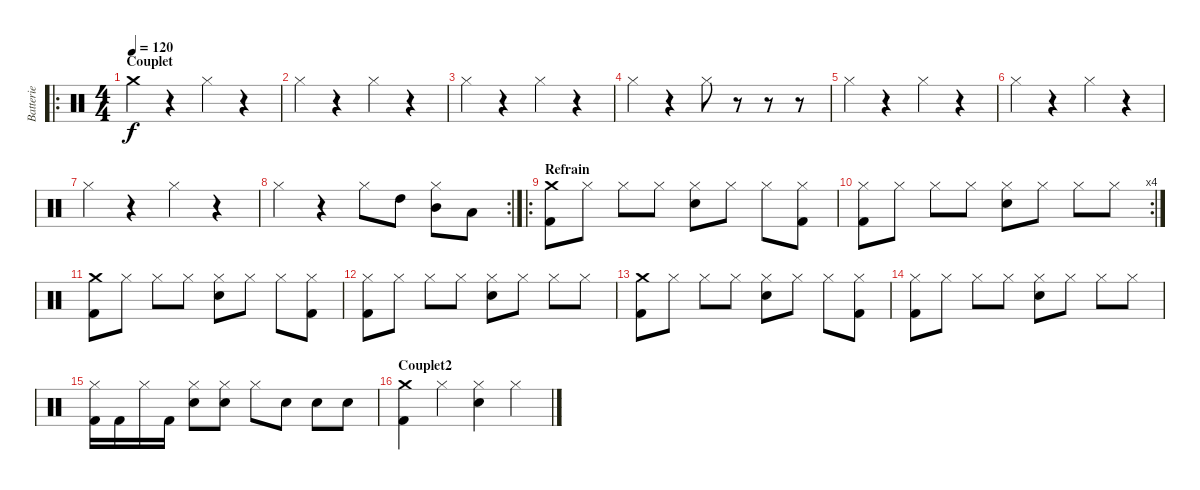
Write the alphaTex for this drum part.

\track ("Batterie" "Batterie") {instrument percussion}
\staff {score}
\articulation defaults
\ro
\ts (4 4)
\section ("" "Couplet")
\tempo 120
\clef neutral
\ks c "Crash medium (hit)".4{dy f}
r.4 "Hi-Hat (closed)".4 r.4 |
"Hi-Hat (closed)".4 r.4 "Hi-Hat (closed)".4 r.4 |
"Hi-Hat (closed)".4 r.4 "Hi-Hat (closed)".4 r.4 |
"Hi-Hat (closed)".4 r.4 "Hi-Hat (closed)".8 r.8 r.8 r.8 |
"Hi-Hat (closed)".4 r.4 "Hi-Hat (closed)".4 r.4 |
"Hi-Hat (closed)".4 r.4 "Hi-Hat (closed)".4 r.4 |
"Hi-Hat (closed)".4 r.4 "Hi-Hat (closed)".4 r.4 |
\rc 2 "Hi-Hat (closed)".4
r.4 "Hi-Hat (closed)".8 "High Tom (hit)".8 ("Mid Tom (hit)" "Hi-Hat (closed)").8 "Low Tom (hit)".8 |
\ro
\section ("" "Refrain")
("Kick (hit) 2" "Crash medium (hit)").8 "Hi-Hat (closed)".8 "Hi-Hat (closed)".8 "Hi-Hat (closed)".8 ("Snare (hit) 2" "Hi-Hat (closed)").8 "Hi-Hat (closed)".8 "Hi-Hat (closed)".8 ("Kick (hit) 2" "Hi-Hat (closed)").8 |
\rc 4
("Kick (hit) 2" "Hi-Hat (closed)").8 "Hi-Hat (closed)".8 "Hi-Hat (closed)".8 "Hi-Hat (closed)".8 ("Snare (hit) 2" "Hi-Hat (closed)").8 "Hi-Hat (closed)".8 "Hi-Hat (closed)".8 "Hi-Hat (closed)".8 |
("Kick (hit) 2" "Crash medium (hit)").8 "Hi-Hat (closed)".8 "Hi-Hat (closed)".8 "Hi-Hat (closed)".8 ("Snare (hit) 2" "Hi-Hat (closed)").8 "Hi-Hat (closed)".8 "Hi-Hat (closed)".8 ("Kick (hit) 2" "Hi-Hat (closed)").8 |
("Kick (hit) 2" "Hi-Hat (closed)").8 "Hi-Hat (closed)".8 "Hi-Hat (closed)".8 "Hi-Hat (closed)".8 ("Snare (hit) 2" "Hi-Hat (closed)").8 "Hi-Hat (closed)".8 "Hi-Hat (closed)".8 "Hi-Hat (closed)".8 |
("Kick (hit) 2" "Crash medium (hit)").8 "Hi-Hat (closed)".8 "Hi-Hat (closed)".8 "Hi-Hat (closed)".8 ("Snare (hit) 2" "Hi-Hat (closed)").8 "Hi-Hat (closed)".8 "Hi-Hat (closed)".8 ("Kick (hit) 2" "Hi-Hat (closed)").8 |
("Kick (hit) 2" "Hi-Hat (closed)").8 "Hi-Hat (closed)".8 "Hi-Hat (closed)".8 "Hi-Hat (closed)".8 ("Snare (hit) 2" "Hi-Hat (closed)").8 "Hi-Hat (closed)".8 "Hi-Hat (closed)".8 "Hi-Hat (closed)".8 |
("Kick (hit) 2" "Hi-Hat (closed)").16 "Kick (hit) 2".16 "Hi-Hat (closed)".16 "Kick (hit) 2".16 ("Snare (hit) 2" "Hi-Hat (closed)").8 ("Snare (hit) 2" "Hi-Hat (closed)").8 "Hi-Hat (closed)".8 "Snare (hit) 2".8 "Snare (hit) 2".8 "Snare (hit) 2".8 |
\section ("" "Couplet2")
("Crash medium (hit)" "Kick (hit) 2").4 "Hi-Hat (closed)".4 ("Snare (hit) 2" "Hi-Hat (closed)").4 "Hi-Hat (closed)".4
